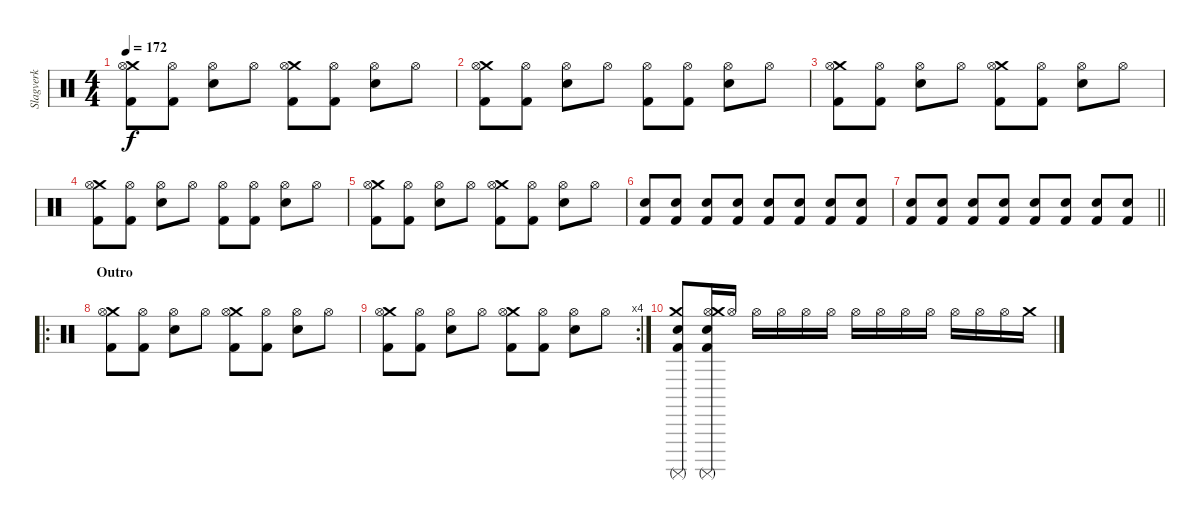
\track ("Slagverk" "Slagverk") {instrument percussion}
\staff {score}
\articulation defaults
\ts (4 4)
\tempo 172
\clef neutral
\ks c
("Crash medium (hit)" "Kick (hit) 2" "Hi-Hat (open)").8{dy f} ("Kick (hit) 2" "Hi-Hat (open)").8 ("Snare (hit) 2" "Hi-Hat (open)").8 "Hi-Hat (open)".8 ("Crash medium (hit)" "Kick (hit) 2" "Hi-Hat (open)").8 ("Kick (hit) 2" "Hi-Hat (open)").8 ("Snare (hit) 2" "Hi-Hat (open)").8 "Hi-Hat (open)".8 |
("Crash medium (hit)" "Kick (hit) 2" "Hi-Hat (open)").8 ("Kick (hit) 2" "Hi-Hat (open)").8 ("Snare (hit) 2" "Hi-Hat (open)").8 "Hi-Hat (open)".8 ("Kick (hit) 2" "Hi-Hat (open)").8 ("Kick (hit) 2" "Hi-Hat (open)").8 ("Snare (hit) 2" "Hi-Hat (open)").8 "Hi-Hat (open)".8 |
("Crash medium (hit)" "Kick (hit) 2" "Hi-Hat (open)").8 ("Kick (hit) 2" "Hi-Hat (open)").8 ("Snare (hit) 2" "Hi-Hat (open)").8 "Hi-Hat (open)".8 ("Crash medium (hit)" "Kick (hit) 2" "Hi-Hat (open)").8 ("Kick (hit) 2" "Hi-Hat (open)").8 ("Snare (hit) 2" "Hi-Hat (open)").8 "Hi-Hat (open)".8 |
("Crash medium (hit)" "Kick (hit) 2" "Hi-Hat (open)").8 ("Kick (hit) 2" "Hi-Hat (open)").8 ("Snare (hit) 2" "Hi-Hat (open)").8 "Hi-Hat (open)".8 ("Kick (hit) 2" "Hi-Hat (open)").8 ("Kick (hit) 2" "Hi-Hat (open)").8 ("Snare (hit) 2" "Hi-Hat (open)").8 "Hi-Hat (open)".8 |
("Crash medium (hit)" "Kick (hit) 2" "Hi-Hat (open)").8 ("Kick (hit) 2" "Hi-Hat (open)").8 ("Snare (hit) 2" "Hi-Hat (open)").8 "Hi-Hat (open)".8 ("Crash medium (hit)" "Kick (hit) 2" "Hi-Hat (open)").8 ("Kick (hit) 2" "Hi-Hat (open)").8 ("Snare (hit) 2" "Hi-Hat (open)").8 "Hi-Hat (open)".8 |
("Snare (hit) 2" "Kick (hit) 2").8 ("Snare (hit) 2" "Kick (hit) 2").8 ("Snare (hit) 2" "Kick (hit) 2").8 ("Snare (hit) 2" "Kick (hit) 2").8 ("Snare (hit) 2" "Kick (hit) 2").8 ("Snare (hit) 2" "Kick (hit) 2").8 ("Snare (hit) 2" "Kick (hit) 2").8 ("Snare (hit) 2" "Kick (hit) 2").8 |
\barLineRight lightlight
("Snare (hit) 2" "Kick (hit) 2").8 ("Snare (hit) 2" "Kick (hit) 2").8 ("Snare (hit) 2" "Kick (hit) 2").8 ("Snare (hit) 2" "Kick (hit) 2").8 ("Snare (hit) 2" "Kick (hit) 2").8 ("Snare (hit) 2" "Kick (hit) 2").8 ("Snare (hit) 2" "Kick (hit) 2").8 ("Snare (hit) 2" "Kick (hit) 2").8 |
\ro
\section ("" "Outro")
("Crash medium (hit)" "Kick (hit) 2" "Hi-Hat (open)").8 ("Kick (hit) 2" "Hi-Hat (open)").8 ("Snare (hit) 2" "Hi-Hat (open)").8 "Hi-Hat (open)".8 ("Crash medium (hit)" "Kick (hit) 2" "Hi-Hat (open)").8 ("Kick (hit) 2" "Hi-Hat (open)").8 ("Snare (hit) 2" "Hi-Hat (open)").8 "Hi-Hat (open)".8 |
\rc 4
("Crash medium (hit)" "Kick (hit) 2" "Hi-Hat (open)").8 ("Kick (hit) 2" "Hi-Hat (open)").8 ("Snare (hit) 2" "Hi-Hat (open)").8 "Hi-Hat (open)".8 ("Crash medium (hit)" "Kick (hit) 2" "Hi-Hat (open)").8 ("Kick (hit) 2" "Hi-Hat (open)").8 ("Snare (hit) 2" "Hi-Hat (open)").8 "Hi-Hat (open)".8 |
("Crash medium (hit)" "Surdo (mute)" "Snare (hit) 2" "Kick (hit) 2").8 ("Hi-Hat (open)" "Crash medium (hit)" "Surdo (mute)" "Snare (hit) 2" "Kick (hit) 2").16 "Hi-Hat (open)".16 "Hi-Hat (open)".16 "Hi-Hat (open)".16 "Hi-Hat (open)".16 "Hi-Hat (open)".16 "Hi-Hat (open)".16 "Hi-Hat (open)".16 "Hi-Hat (open)".16 "Hi-Hat (open)".16 "Hi-Hat (open)".16 "Hi-Hat (open)".16 "Hi-Hat (open)".16 "Crash medium (hit)".16
